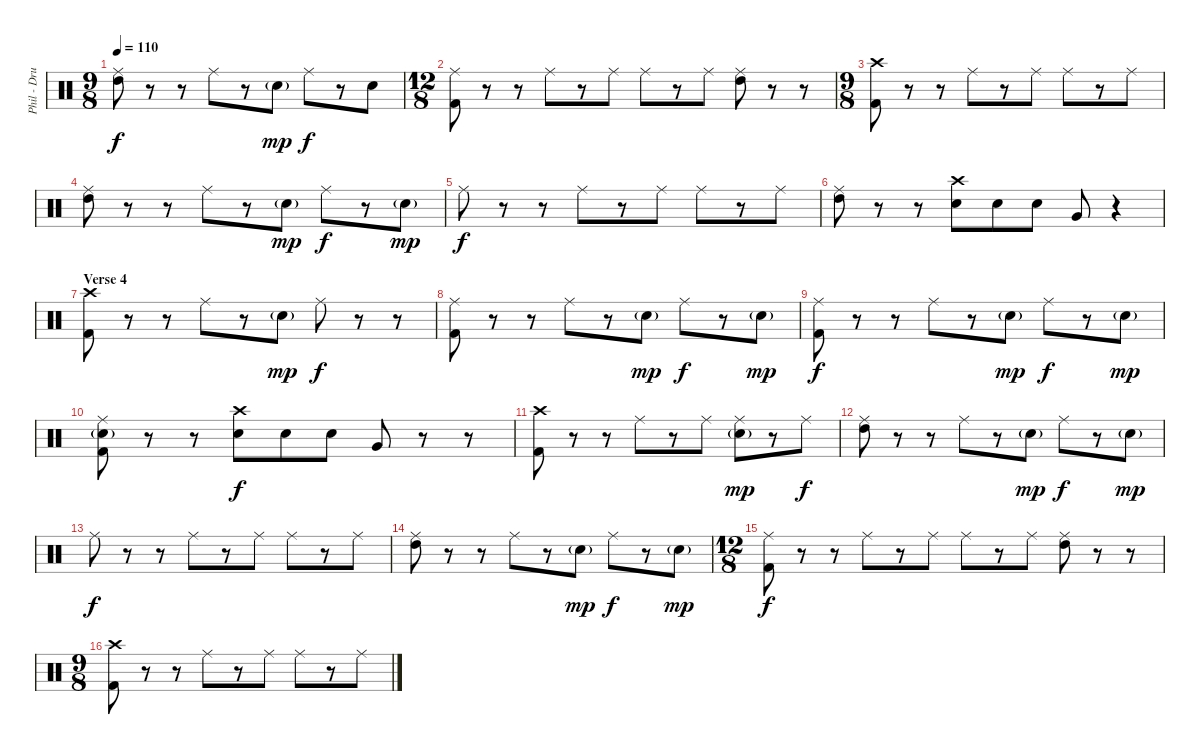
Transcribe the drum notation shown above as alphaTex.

\track ("Phil - Drums" "Phil - Dru") {instrument percussion}
\staff {score}
\articulation defaults
\ts (9 8)
\tempo 110
\clef neutral
\ks c
("Ride (middle)" "High Tom (hit)").8{dy f} r.8 r.8 "Ride (middle)".8 r.8 "Electric Snare (hit)"{g}.8{dy mp} "Ride (middle)".8{dy f} r.8 "Electric Snare (hit)".8 |
\ts (12 8)
("Ride (middle)" "Kick (hit) 2").8 r.8 r.8 "Ride (middle)".8 r.8 "Ride (middle)".8 "Ride (middle)".8 r.8 "Ride (middle)".8 ("Ride (middle)" "High Tom (hit)").8 r.8 r.8 |
\ts (9 8)
("Crash high (hit)" "Kick (hit) 2").8 r.8 r.8 "Ride (middle)".8 r.8 "Ride (middle)".8 "Ride (middle)".8 r.8 "Ride (middle)".8 |
("Ride (middle)" "High Tom (hit)").8 r.8 r.8 "Ride (middle)".8 r.8 "Electric Snare (hit)"{g}.8{dy mp} "Ride (middle)".8{dy f} r.8 "Electric Snare (hit)"{g}.8{dy mp} |
"Ride (middle)".8{dy f} r.8 r.8 "Ride (middle)".8 r.8 "Ride (middle)".8 "Ride (middle)".8 r.8 "Ride (middle)".8 |
("Ride (middle)" "High Tom (hit)").8 r.8 r.8 ("Crash high (hit)" "Snare (hit) 2").8 "Electric Snare (hit)".8 "Electric Snare (hit)".8 "Very Low Tom (hit)".8 r.4 |
\section ("" "Verse 4")
("Crash high (hit)" "Kick (hit) 2").8 r.8 r.8 "Ride (middle)".8 r.8 "Electric Snare (hit)"{g}.8{dy mp} "Ride (middle)".8{dy f} r.8 r.8 |
("Ride (middle)" "Kick (hit) 2").8 r.8 r.8 "Ride (middle)".8 r.8 "Electric Snare (hit)"{g}.8{dy mp} "Ride (middle)".8{dy f} r.8 "Electric Snare (hit)"{g}.8{dy mp} |
("Ride (middle)" "Kick (hit) 2").8{dy f} r.8 r.8 "Ride (middle)".8 r.8 "Electric Snare (hit)"{g}.8{dy mp} "Ride (middle)".8{dy f} r.8 "Electric Snare (hit)"{g}.8{dy mp} |
("Ride (middle)" "Electric Snare (hit)"{g} "Kick (hit) 2").8 r.8 r.8 ("Crash high (hit)" "Snare (hit) 2").8{dy f} "Electric Snare (hit)".8 "Electric Snare (hit)".8 "Very Low Tom (hit)".8 r.8 r.8 |
("Crash high (hit)" "Kick (hit) 2").8 r.8 r.8 "Ride (middle)".8 r.8 "Ride (middle)".8 ("Ride (middle)" "Electric Snare (hit)"{g}).8{dy mp} r.8 "Ride (middle)".8{dy f} |
("Ride (middle)" "High Tom (hit)").8 r.8 r.8 "Ride (middle)".8 r.8 "Electric Snare (hit)"{g}.8{dy mp} "Ride (middle)".8{dy f} r.8 "Electric Snare (hit)"{g}.8{dy mp} |
"Ride (middle)".8{dy f} r.8 r.8 "Ride (middle)".8 r.8 "Ride (middle)".8 "Ride (middle)".8 r.8 "Ride (middle)".8 |
("Ride (middle)" "High Tom (hit)").8 r.8 r.8 "Ride (middle)".8 r.8 "Electric Snare (hit)"{g}.8{dy mp} "Ride (middle)".8{dy f} r.8 "Electric Snare (hit)"{g}.8{dy mp} |
\ts (12 8)
("Ride (middle)" "Kick (hit) 2").8{dy f} r.8 r.8 "Ride (middle)".8 r.8 "Ride (middle)".8 "Ride (middle)".8 r.8 "Ride (middle)".8 ("Ride (middle)" "High Tom (hit)").8 r.8 r.8 |
\ts (9 8)
("Crash high (hit)" "Kick (hit) 2").8 r.8 r.8 "Ride (middle)".8 r.8 "Ride (middle)".8 "Ride (middle)".8 r.8 "Ride (middle)".8
